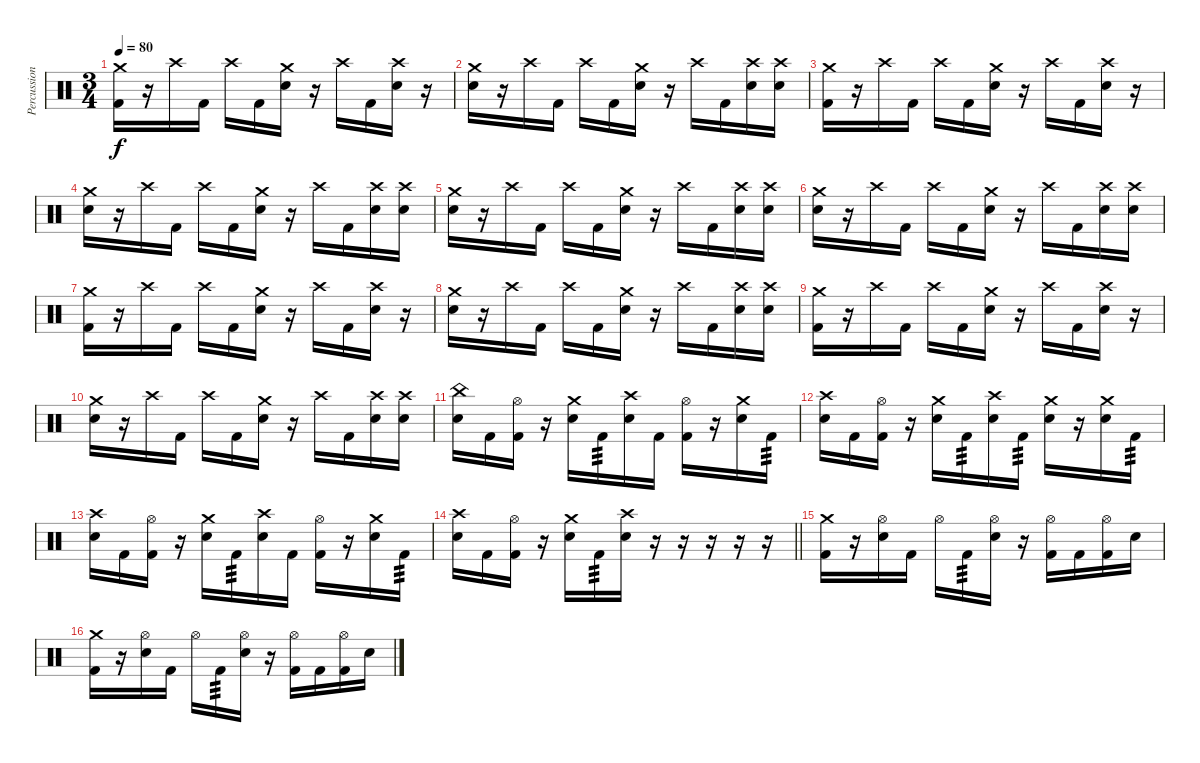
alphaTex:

\track ("Percussion" "Percussion") {instrument percussion}
\staff {score}
\articulation defaults
\ts (3 4)
\tempo 80
\clef neutral
\ks c
("Crash medium (hit)" "Kick (hit) 2").16{dy f} r.16 "Crash high (hit)".16 "Kick (hit) 2".16 "Crash high (hit)".16 "Kick (hit) 2".16 ("Crash medium (hit)" "Electric Snare (hit)").16 r.16 "Crash high (hit)".16 "Kick (hit) 2".16 ("Crash high (hit)" "Electric Snare (hit)").16 r.16 |
("Crash medium (hit)" "Electric Snare (hit)").16 r.16 "Crash high (hit)".16 "Kick (hit) 2".16 "Crash high (hit)".16 "Kick (hit) 2".16 ("Crash medium (hit)" "Electric Snare (hit)").16 r.16 "Crash high (hit)".16 "Kick (hit) 2".16 ("Crash high (hit)" "Electric Snare (hit)").16 ("Crash high (hit)" "Electric Snare (hit)").16 |
("Crash medium (hit)" "Kick (hit) 2").16 r.16 "Crash high (hit)".16 "Kick (hit) 2".16 "Crash high (hit)".16 "Kick (hit) 2".16 ("Crash medium (hit)" "Electric Snare (hit)").16 r.16 "Crash high (hit)".16 "Kick (hit) 2".16 ("Crash high (hit)" "Electric Snare (hit)").16 r.16 |
("Crash medium (hit)" "Electric Snare (hit)").16 r.16 "Crash high (hit)".16 "Kick (hit) 2".16 "Crash high (hit)".16 "Kick (hit) 2".16 ("Crash medium (hit)" "Electric Snare (hit)").16 r.16 "Crash high (hit)".16 "Kick (hit) 2".16 ("Crash high (hit)" "Electric Snare (hit)").16 ("Crash high (hit)" "Electric Snare (hit)").16 |
("Crash medium (hit)" "Electric Snare (hit)").16 r.16 "Crash high (hit)".16 "Kick (hit) 2".16 "Crash high (hit)".16 "Kick (hit) 2".16 ("Crash medium (hit)" "Electric Snare (hit)").16 r.16 "Crash high (hit)".16 "Kick (hit) 2".16 ("Crash high (hit)" "Electric Snare (hit)").16 ("Crash high (hit)" "Electric Snare (hit)").16 |
("Crash medium (hit)" "Electric Snare (hit)").16 r.16 "Crash high (hit)".16 "Kick (hit) 2".16 "Crash high (hit)".16 "Kick (hit) 2".16 ("Crash medium (hit)" "Electric Snare (hit)").16 r.16 "Crash high (hit)".16 "Kick (hit) 2".16 ("Crash high (hit)" "Electric Snare (hit)").16 ("Crash high (hit)" "Electric Snare (hit)").16 |
("Crash medium (hit)" "Kick (hit) 2").16 r.16 "Crash high (hit)".16 "Kick (hit) 2".16 "Crash high (hit)".16 "Kick (hit) 2".16 ("Crash medium (hit)" "Electric Snare (hit)").16 r.16 "Crash high (hit)".16 "Kick (hit) 2".16 ("Crash high (hit)" "Electric Snare (hit)").16 r.16 |
("Crash medium (hit)" "Electric Snare (hit)").16 r.16 "Crash high (hit)".16 "Kick (hit) 2".16 "Crash high (hit)".16 "Kick (hit) 2".16 ("Crash medium (hit)" "Electric Snare (hit)").16 r.16 "Crash high (hit)".16 "Kick (hit) 2".16 ("Crash high (hit)" "Electric Snare (hit)").16 ("Crash high (hit)" "Electric Snare (hit)").16 |
("Crash medium (hit)" "Kick (hit) 2").16 r.16 "Crash high (hit)".16 "Kick (hit) 2".16 "Crash high (hit)".16 "Kick (hit) 2".16 ("Crash medium (hit)" "Electric Snare (hit)").16 r.16 "Crash high (hit)".16 "Kick (hit) 2".16 ("Crash high (hit)" "Electric Snare (hit)").16 r.16 |
("Crash medium (hit)" "Electric Snare (hit)").16 r.16 "Crash high (hit)".16 "Kick (hit) 2".16 "Crash high (hit)".16 "Kick (hit) 2".16 ("Crash medium (hit)" "Electric Snare (hit)").16 r.16 "Crash high (hit)".16 "Kick (hit) 2".16 ("Crash high (hit)" "Electric Snare (hit)").16 ("Crash high (hit)" "Electric Snare (hit)").16 |
("Electric Snare (hit)" "China (hit)").16 "Kick (hit) 2".16 ("Kick (hit) 2" "Hi-Hat (open)").16 r.16 ("Crash medium (hit)" "Electric Snare (hit)").16 "Kick (hit) 2".16{tp 3} ("Crash high (hit)" "Electric Snare (hit)").16 "Kick (hit) 2".16 ("Kick (hit) 2" "Hi-Hat (open)").16 r.16 ("Crash medium (hit)" "Electric Snare (hit)").16 "Kick (hit) 2".16{tp 3} |
("Electric Snare (hit)" "Crash high (hit)").16 "Kick (hit) 2".16 ("Kick (hit) 2" "Hi-Hat (open)").16 r.16 ("Crash medium (hit)" "Electric Snare (hit)").16 "Kick (hit) 2".16{tp 3} ("Crash high (hit)" "Electric Snare (hit)").16 "Kick (hit) 2".16{tp 3} ("Electric Snare (hit)" "Crash medium (hit)").16 r.16 ("Crash medium (hit)" "Electric Snare (hit)").16 "Kick (hit) 2".16{tp 3} |
("Electric Snare (hit)" "Crash high (hit)").16 "Kick (hit) 2".16 ("Kick (hit) 2" "Hi-Hat (open)").16 r.16 ("Crash medium (hit)" "Electric Snare (hit)").16 "Kick (hit) 2".16{tp 3} ("Crash high (hit)" "Electric Snare (hit)").16 "Kick (hit) 2".16 ("Kick (hit) 2" "Hi-Hat (open)").16 r.16 ("Crash medium (hit)" "Electric Snare (hit)").16 "Kick (hit) 2".16{tp 3} |
\barLineRight lightlight
("Electric Snare (hit)" "Crash high (hit)").16 "Kick (hit) 2".16 ("Kick (hit) 2" "Hi-Hat (open)").16 r.16 ("Crash medium (hit)" "Electric Snare (hit)").16 "Kick (hit) 2".16{tp 3} ("Crash high (hit)" "Electric Snare (hit)").16 r.16 r.16 r.16 r.16 r.16 |
("Kick (hit) 2" "Crash medium (hit)").16 r.16 ("Electric Snare (hit)" "Hi-Hat (open)").16 "Kick (hit) 2".16 "Hi-Hat (open)".16 "Kick (hit) 2".16{tp 3} ("Electric Snare (hit)" "Hi-Hat (open)").16 r.16 ("Kick (hit) 2" "Hi-Hat (open)").16 "Kick (hit) 2".16 ("Kick (hit) 2" "Hi-Hat (open)").16 "Electric Snare (hit)".16 |
("Kick (hit) 2" "Crash medium (hit)").16 r.16 ("Electric Snare (hit)" "Hi-Hat (open)").16 "Kick (hit) 2".16 "Hi-Hat (open)".16 "Kick (hit) 2".16{tp 3} ("Electric Snare (hit)" "Hi-Hat (open)").16 r.16 ("Kick (hit) 2" "Hi-Hat (open)").16 "Kick (hit) 2".16 ("Kick (hit) 2" "Hi-Hat (open)").16 "Electric Snare (hit)".16
